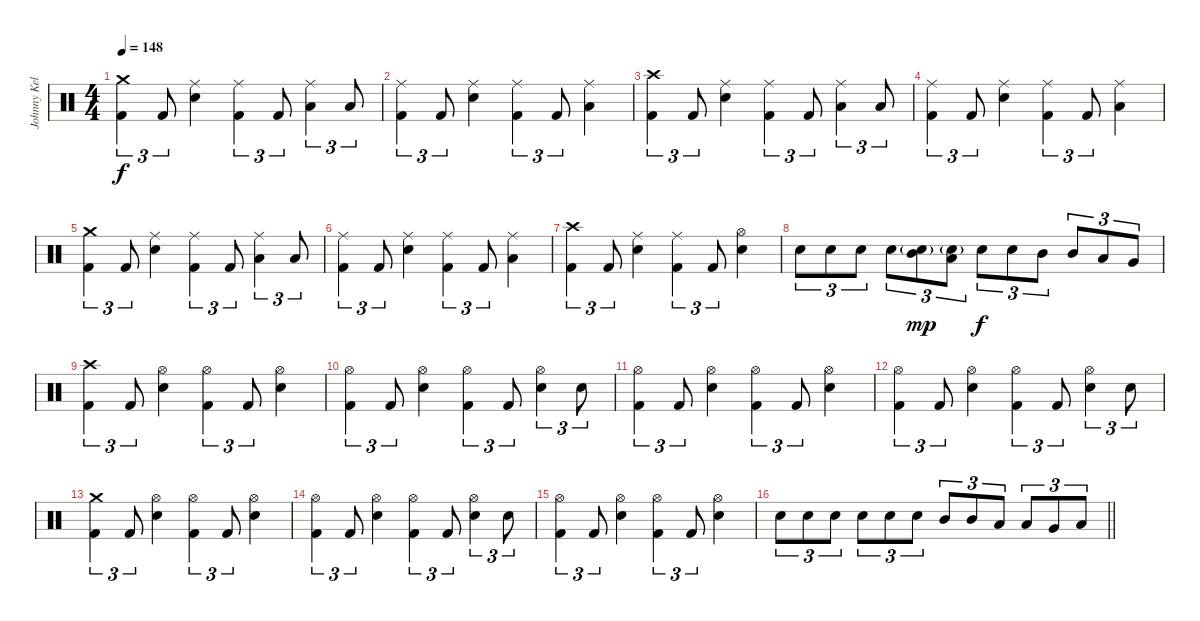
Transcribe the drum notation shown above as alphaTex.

\track ("Johnny Kelly" "Johnny Kel") {instrument percussion}
\staff {score}
\articulation defaults
\ts (4 4)
\section ("" "")
\tempo 148
\clef neutral
\ks c
("Crash medium (hit)" "Kick (hit) 2").4{tu (3 2) dy f} "Kick (hit) 2".8{tu (3 2)} ("Ride (middle)" "Electric Snare (hit)").4 ("Ride (middle)" "Kick (hit) 2").4{tu (3 2)} "Kick (hit) 2".8{tu (3 2)} ("Ride (middle)" "Low Tom (hit)").4{tu (3 2)} "Low Tom (hit)".8{tu (3 2)} |
("Ride (middle)" "Kick (hit) 2").4{tu (3 2)} "Kick (hit) 2".8{tu (3 2)} ("Ride (middle)" "Electric Snare (hit)").4 ("Ride (middle)" "Kick (hit) 2").4{tu (3 2)} "Kick (hit) 2".8{tu (3 2)} ("Ride (middle)" "Low Tom (hit)").4 |
("Crash high (hit)" "Kick (hit) 2").4{tu (3 2)} "Kick (hit) 2".8{tu (3 2)} ("Ride (middle)" "Electric Snare (hit)").4 ("Ride (middle)" "Kick (hit) 2").4{tu (3 2)} "Kick (hit) 2".8{tu (3 2)} ("Ride (middle)" "Low Tom (hit)").4{tu (3 2)} "Low Tom (hit)".8{tu (3 2)} |
("Ride (middle)" "Kick (hit) 2").4{tu (3 2)} "Kick (hit) 2".8{tu (3 2)} ("Ride (middle)" "Electric Snare (hit)").4 ("Ride (middle)" "Kick (hit) 2").4{tu (3 2)} "Kick (hit) 2".8{tu (3 2)} ("Ride (middle)" "Low Tom (hit)").4 |
("Crash medium (hit)" "Kick (hit) 2").4{tu (3 2)} "Kick (hit) 2".8{tu (3 2)} ("Ride (middle)" "Electric Snare (hit)").4 ("Ride (middle)" "Kick (hit) 2").4{tu (3 2)} "Kick (hit) 2".8{tu (3 2)} ("Ride (middle)" "Low Tom (hit)").4{tu (3 2)} "Low Tom (hit)".8{tu (3 2)} |
("Ride (middle)" "Kick (hit) 2").4{tu (3 2)} "Kick (hit) 2".8{tu (3 2)} ("Ride (middle)" "Electric Snare (hit)").4 ("Ride (middle)" "Kick (hit) 2").4{tu (3 2)} "Kick (hit) 2".8{tu (3 2)} ("Ride (middle)" "Low Tom (hit)").4 |
("Crash high (hit)" "Kick (hit) 2").4{tu (3 2)} "Kick (hit) 2".8{tu (3 2)} ("Ride (middle)" "Electric Snare (hit)").4 ("Ride (middle)" "Kick (hit) 2").4{tu (3 2)} "Kick (hit) 2".8{tu (3 2)} ("Hi-Hat (open)" "Electric Snare (hit)").4 |
"Electric Snare (hit)".8{tu (3 2)} "Electric Snare (hit)".8{tu (3 2)} "Electric Snare (hit)".8{tu (3 2)} "Electric Snare (hit)".8{tu (3 2)} ("Mid Tom (hit)" "Electric Snare (hit)"{g}).8{tu (3 2) dy mp} ("Low Tom (hit)" "Electric Snare (hit)"{g}).8{tu (3 2)} "Electric Snare (hit)".8{tu (3 2) dy f} "Electric Snare (hit)".8{tu (3 2)} "Mid Tom (hit)".8{tu (3 2)} "Mid Tom (hit)".8{tu (3 2)} "Low Tom (hit)".8{tu (3 2)} "Very Low Tom (hit)".8{tu (3 2)} |
("Crash high (hit)" "Kick (hit) 2").4{tu (3 2)} "Kick (hit) 2".8{tu (3 2)} ("Hi-Hat (open)" "Electric Snare (hit)").4 ("Hi-Hat (open)" "Kick (hit) 2").4{tu (3 2)} "Kick (hit) 2".8{tu (3 2)} ("Hi-Hat (open)" "Electric Snare (hit)").4 |
("Hi-Hat (open)" "Kick (hit) 2").4{tu (3 2)} "Kick (hit) 2".8{tu (3 2)} ("Hi-Hat (open)" "Electric Snare (hit)").4 ("Hi-Hat (open)" "Kick (hit) 2").4{tu (3 2)} "Kick (hit) 2".8{tu (3 2)} ("Hi-Hat (open)" "Electric Snare (hit)").4{tu (3 2)} "Electric Snare (hit)".8{tu (3 2)} |
("Hi-Hat (open)" "Kick (hit) 2").4{tu (3 2)} "Kick (hit) 2".8{tu (3 2)} ("Hi-Hat (open)" "Electric Snare (hit)").4 ("Hi-Hat (open)" "Kick (hit) 2").4{tu (3 2)} "Kick (hit) 2".8{tu (3 2)} ("Hi-Hat (open)" "Electric Snare (hit)").4 |
("Hi-Hat (open)" "Kick (hit) 2").4{tu (3 2)} "Kick (hit) 2".8{tu (3 2)} ("Hi-Hat (open)" "Electric Snare (hit)").4 ("Hi-Hat (open)" "Kick (hit) 2").4{tu (3 2)} "Kick (hit) 2".8{tu (3 2)} ("Hi-Hat (open)" "Electric Snare (hit)").4{tu (3 2)} "Electric Snare (hit)".8{tu (3 2)} |
("Crash medium (hit)" "Kick (hit) 2").4{tu (3 2)} "Kick (hit) 2".8{tu (3 2)} ("Hi-Hat (open)" "Electric Snare (hit)").4 ("Hi-Hat (open)" "Kick (hit) 2").4{tu (3 2)} "Kick (hit) 2".8{tu (3 2)} ("Hi-Hat (open)" "Electric Snare (hit)").4 |
("Hi-Hat (open)" "Kick (hit) 2").4{tu (3 2)} "Kick (hit) 2".8{tu (3 2)} ("Hi-Hat (open)" "Electric Snare (hit)").4 ("Hi-Hat (open)" "Kick (hit) 2").4{tu (3 2)} "Kick (hit) 2".8{tu (3 2)} ("Hi-Hat (open)" "Electric Snare (hit)").4{tu (3 2)} "Electric Snare (hit)".8{tu (3 2)} |
("Hi-Hat (open)" "Kick (hit) 2").4{tu (3 2)} "Kick (hit) 2".8{tu (3 2)} ("Hi-Hat (open)" "Electric Snare (hit)").4 ("Hi-Hat (open)" "Kick (hit) 2").4{tu (3 2)} "Kick (hit) 2".8{tu (3 2)} ("Hi-Hat (open)" "Electric Snare (hit)").4 |
\barLineRight lightlight "Electric Snare (hit)".8{tu (3 2)} "Electric Snare (hit)".8{tu (3 2)} "Electric Snare (hit)".8{tu (3 2)} "Electric Snare (hit)".8{tu (3 2)} "Electric Snare (hit)".8{tu (3 2)} "Electric Snare (hit)".8{tu (3 2)} "Mid Tom (hit)".8{tu (3 2)} "Mid Tom (hit)".8{tu (3 2)} "Low Tom (hit)".8{tu (3 2)} "Low Tom (hit)".8{tu (3 2)} "Very Low Tom (hit)".8{tu (3 2)} "Low Floor Tom (hit)".8{tu (3 2)}
